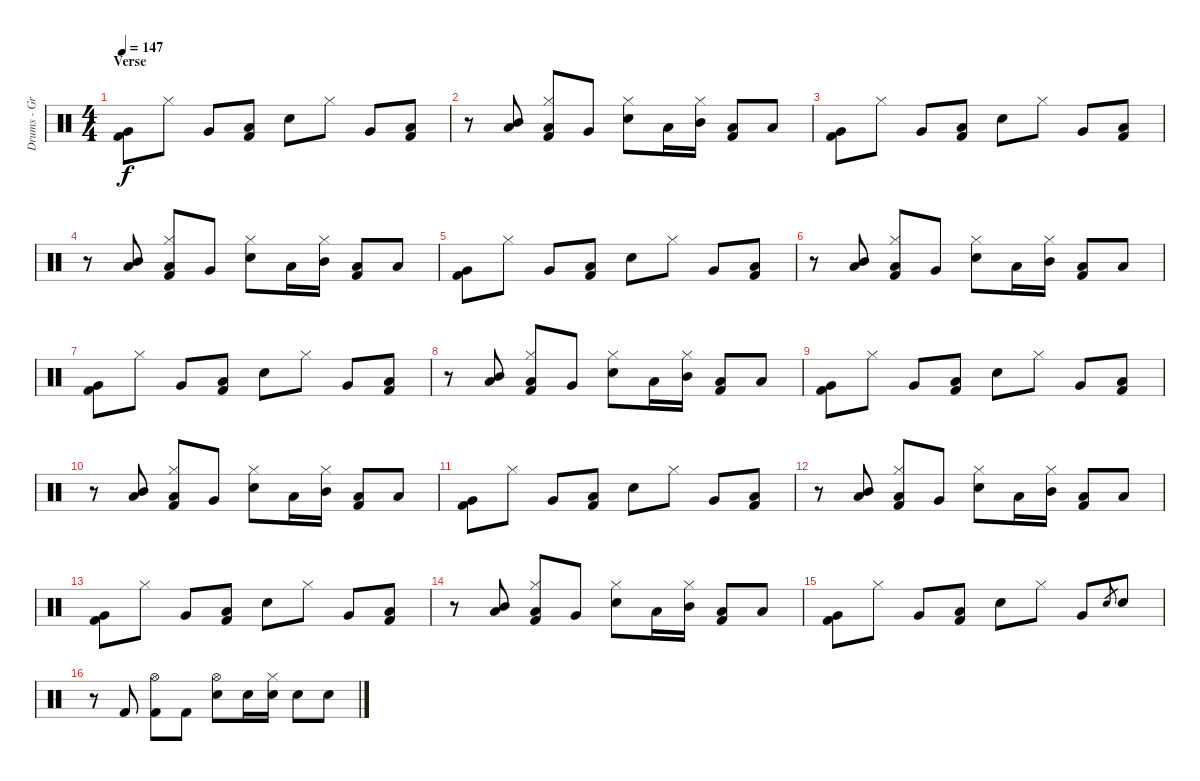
\track ("Drums - Greg Upchurch" "Drums - Gr") {instrument percussion}
\staff {score}
\articulation defaults
\ts (4 4)
\section ("" "Verse")
\tempo 147
\clef neutral
\ks c
("Very Low Tom (hit)" "Kick (hit) 2").8{dy f} "Hi-Hat (closed)".8 "Very Low Tom (hit)".8 ("Low Tom (hit)" "Kick (hit) 2").8 "Electric Snare (hit)".8 "Hi-Hat (closed)".8 "Very Low Tom (hit)".8 ("Low Tom (hit)" "Kick (hit) 2").8 |
r.8 ("Low Tom (hit)" "Mid Tom (hit)").8 ("Hi-Hat (closed)" "Kick (hit) 2" "Low Tom (hit)").8 "Very Low Tom (hit)".8 ("Hi-Hat (closed)" "Electric Snare (hit)").8 "Low Tom (hit)".16 ("Hi-Hat (closed)" "Mid Tom (hit)").16 ("Kick (hit) 2" "Low Tom (hit)").8 "Low Tom (hit)".8 |
("Very Low Tom (hit)" "Kick (hit) 2").8 "Hi-Hat (closed)".8 "Very Low Tom (hit)".8 ("Low Tom (hit)" "Kick (hit) 2").8 "Electric Snare (hit)".8 "Hi-Hat (closed)".8 "Very Low Tom (hit)".8 ("Low Tom (hit)" "Kick (hit) 2").8 |
r.8 ("Low Tom (hit)" "Mid Tom (hit)").8 ("Hi-Hat (closed)" "Kick (hit) 2" "Low Tom (hit)").8 "Very Low Tom (hit)".8 ("Hi-Hat (closed)" "Electric Snare (hit)").8 "Low Tom (hit)".16 ("Hi-Hat (closed)" "Mid Tom (hit)").16 ("Kick (hit) 2" "Low Tom (hit)").8 "Low Tom (hit)".8 |
("Very Low Tom (hit)" "Kick (hit) 2").8 "Hi-Hat (closed)".8 "Very Low Tom (hit)".8 ("Low Tom (hit)" "Kick (hit) 2").8 "Electric Snare (hit)".8 "Hi-Hat (closed)".8 "Very Low Tom (hit)".8 ("Low Tom (hit)" "Kick (hit) 2").8 |
r.8 ("Low Tom (hit)" "Mid Tom (hit)").8 ("Hi-Hat (closed)" "Kick (hit) 2" "Low Tom (hit)").8 "Very Low Tom (hit)".8 ("Hi-Hat (closed)" "Electric Snare (hit)").8 "Low Tom (hit)".16 ("Hi-Hat (closed)" "Mid Tom (hit)").16 ("Kick (hit) 2" "Low Tom (hit)").8 "Low Tom (hit)".8 |
("Very Low Tom (hit)" "Kick (hit) 2").8 "Hi-Hat (closed)".8 "Very Low Tom (hit)".8 ("Low Tom (hit)" "Kick (hit) 2").8 "Electric Snare (hit)".8 "Hi-Hat (closed)".8 "Very Low Tom (hit)".8 ("Low Tom (hit)" "Kick (hit) 2").8 |
r.8 ("Low Tom (hit)" "Mid Tom (hit)").8 ("Hi-Hat (closed)" "Kick (hit) 2" "Low Tom (hit)").8 "Very Low Tom (hit)".8 ("Hi-Hat (closed)" "Electric Snare (hit)").8 "Low Tom (hit)".16 ("Hi-Hat (closed)" "Mid Tom (hit)").16 ("Kick (hit) 2" "Low Tom (hit)").8 "Low Tom (hit)".8 |
("Very Low Tom (hit)" "Kick (hit) 2").8 "Hi-Hat (closed)".8 "Very Low Tom (hit)".8 ("Low Tom (hit)" "Kick (hit) 2").8 "Electric Snare (hit)".8 "Hi-Hat (closed)".8 "Very Low Tom (hit)".8 ("Low Tom (hit)" "Kick (hit) 2").8 |
r.8 ("Low Tom (hit)" "Mid Tom (hit)").8 ("Hi-Hat (closed)" "Kick (hit) 2" "Low Tom (hit)").8 "Very Low Tom (hit)".8 ("Hi-Hat (closed)" "Electric Snare (hit)").8 "Low Tom (hit)".16 ("Hi-Hat (closed)" "Mid Tom (hit)").16 ("Kick (hit) 2" "Low Tom (hit)").8 "Low Tom (hit)".8 |
("Very Low Tom (hit)" "Kick (hit) 2").8 "Hi-Hat (closed)".8 "Very Low Tom (hit)".8 ("Low Tom (hit)" "Kick (hit) 2").8 "Electric Snare (hit)".8 "Hi-Hat (closed)".8 "Very Low Tom (hit)".8 ("Low Tom (hit)" "Kick (hit) 2").8 |
r.8 ("Low Tom (hit)" "Mid Tom (hit)").8 ("Hi-Hat (closed)" "Kick (hit) 2" "Low Tom (hit)").8 "Very Low Tom (hit)".8 ("Hi-Hat (closed)" "Electric Snare (hit)").8 "Low Tom (hit)".16 ("Hi-Hat (closed)" "Mid Tom (hit)").16 ("Kick (hit) 2" "Low Tom (hit)").8 "Low Tom (hit)".8 |
("Very Low Tom (hit)" "Kick (hit) 2").8 "Hi-Hat (closed)".8 "Very Low Tom (hit)".8 ("Low Tom (hit)" "Kick (hit) 2").8 "Electric Snare (hit)".8 "Hi-Hat (closed)".8 "Very Low Tom (hit)".8 ("Low Tom (hit)" "Kick (hit) 2").8 |
r.8 ("Low Tom (hit)" "Mid Tom (hit)").8 ("Hi-Hat (closed)" "Kick (hit) 2" "Low Tom (hit)").8 "Very Low Tom (hit)".8 ("Hi-Hat (closed)" "Electric Snare (hit)").8 "Low Tom (hit)".16 ("Hi-Hat (closed)" "Mid Tom (hit)").16 ("Kick (hit) 2" "Low Tom (hit)").8 "Low Tom (hit)".8 |
("Very Low Tom (hit)" "Kick (hit) 2").8 "Hi-Hat (closed)".8 "Very Low Tom (hit)".8 ("Low Tom (hit)" "Kick (hit) 2").8 "Electric Snare (hit)".8 "Hi-Hat (closed)".8 "Very Low Tom (hit)".8 "Electric Snare (hit)".8{gr} "Electric Snare (hit)".8 |
r.8 "Kick (hit) 2".8 ("Hi-Hat (open)" "Kick (hit) 2").8 "Kick (hit) 2".8 ("Hi-Hat (open)" "Electric Snare (hit)").8 "Electric Snare (hit)".16 ("Hi-Hat (closed)" "Electric Snare (hit)").16 "Electric Snare (hit)".8 "Electric Snare (hit)".8
